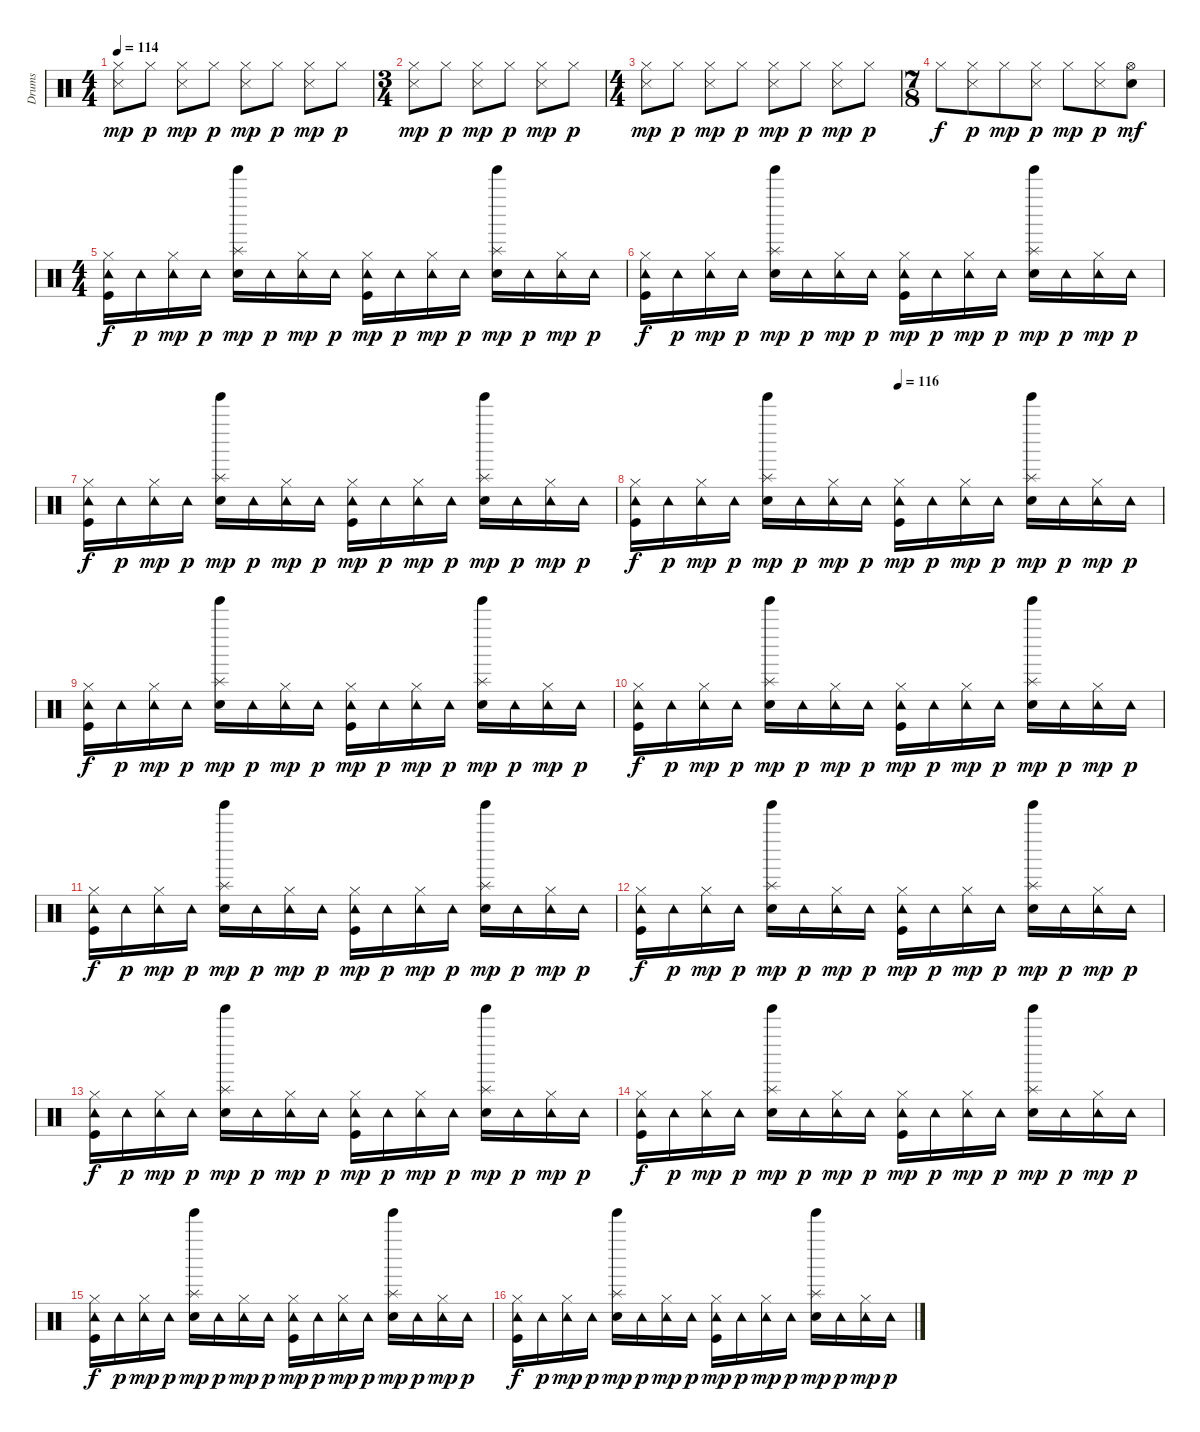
\track ("Drums" "Drums") {instrument percussion}
\staff {score}
\articulation defaults
\ts (4 4)
\tempo 114
\clef neutral
\ks c
("Snare (side stick) 3" "Hi-Hat (closed)").8{dy mp} "Hi-Hat (closed)".8{dy p} ("Snare (side stick) 3" "Hi-Hat (closed)").8{dy mp} "Hi-Hat (closed)".8{dy p} ("Snare (side stick) 3" "Hi-Hat (closed)").8{dy mp} "Hi-Hat (closed)".8{dy p} ("Snare (side stick) 3" "Hi-Hat (closed)").8{dy mp} "Hi-Hat (closed)".8{dy p} |
\ts (3 4)
("Snare (side stick) 3" "Hi-Hat (closed)").8{dy mp} "Hi-Hat (closed)".8{dy p} ("Snare (side stick) 3" "Hi-Hat (closed)").8{dy mp} "Hi-Hat (closed)".8{dy p} ("Snare (side stick) 3" "Hi-Hat (closed)").8{dy mp} "Hi-Hat (closed)".8{dy p} |
\ts (4 4)
("Snare (side stick) 3" "Hi-Hat (closed)").8{dy mp} "Hi-Hat (closed)".8{dy p} ("Snare (side stick) 3" "Hi-Hat (closed)").8{dy mp} "Hi-Hat (closed)".8{dy p} ("Snare (side stick) 3" "Hi-Hat (closed)").8{dy mp} "Hi-Hat (closed)".8{dy p} ("Snare (side stick) 3" "Hi-Hat (closed)").8{dy mp} "Hi-Hat (closed)".8{dy p} |
\ts (7 8)
"Hi-Hat (closed)".8{dy f} ("Snare (side stick) 3" "Hi-Hat (closed)").8{dy p} "Hi-Hat (closed)".8{dy mp} ("Snare (side stick) 3" "Hi-Hat (closed)").8{dy p} "Hi-Hat (closed)".8{dy mp} ("Snare (side stick) 3" "Hi-Hat (closed)").8{dy p} ("Electric Snare (hit)" "Hi-Hat (open)").8{dy mf} |
\ts (4 4)
("Kick (hit)" "Hi-Hat (closed)" "Tambourine (hit)").16{dy f} "Tambourine (hit)".16{dy p} ("Hi-Hat (closed)" "Tambourine (hit)").16{dy mp} "Tambourine (hit)".16{dy p} ("Electric Snare (hit)" "Splash (hit)" "Tinkle Bell (hit)").16{dy mp} "Tambourine (hit)".16{dy p} ("Hi-Hat (closed)" "Tambourine (hit)").16{dy mp} "Tambourine (hit)".16{dy p} ("Kick (hit)" "Hi-Hat (closed)" "Tambourine (hit)").16{dy mp} "Tambourine (hit)".16{dy p} ("Hi-Hat (closed)" "Tambourine (hit)").16{dy mp} "Tambourine (hit)".16{dy p} ("Electric Snare (hit)" "Splash (hit)" "Tinkle Bell (hit)").16{dy mp} "Tambourine (hit)".16{dy p} ("Hi-Hat (closed)" "Tambourine (hit)").16{dy mp} "Tambourine (hit)".16{dy p} |
("Kick (hit)" "Hi-Hat (closed)" "Tambourine (hit)").16{dy f} "Tambourine (hit)".16{dy p} ("Hi-Hat (closed)" "Tambourine (hit)").16{dy mp} "Tambourine (hit)".16{dy p} ("Electric Snare (hit)" "Splash (hit)" "Tinkle Bell (hit)").16{dy mp} "Tambourine (hit)".16{dy p} ("Hi-Hat (closed)" "Tambourine (hit)").16{dy mp} "Tambourine (hit)".16{dy p} ("Kick (hit)" "Hi-Hat (closed)" "Tambourine (hit)").16{dy mp} "Tambourine (hit)".16{dy p} ("Hi-Hat (closed)" "Tambourine (hit)").16{dy mp} "Tambourine (hit)".16{dy p} ("Electric Snare (hit)" "Splash (hit)" "Tinkle Bell (hit)").16{dy mp} "Tambourine (hit)".16{dy p} ("Hi-Hat (closed)" "Tambourine (hit)").16{dy mp} "Tambourine (hit)".16{dy p} |
("Kick (hit)" "Hi-Hat (closed)" "Tambourine (hit)").16{dy f} "Tambourine (hit)".16{dy p} ("Hi-Hat (closed)" "Tambourine (hit)").16{dy mp} "Tambourine (hit)".16{dy p} ("Electric Snare (hit)" "Splash (hit)" "Tinkle Bell (hit)").16{dy mp} "Tambourine (hit)".16{dy p} ("Hi-Hat (closed)" "Tambourine (hit)").16{dy mp} "Tambourine (hit)".16{dy p} ("Kick (hit)" "Hi-Hat (closed)" "Tambourine (hit)").16{dy mp} "Tambourine (hit)".16{dy p} ("Hi-Hat (closed)" "Tambourine (hit)").16{dy mp} "Tambourine (hit)".16{dy p} ("Electric Snare (hit)" "Splash (hit)" "Tinkle Bell (hit)").16{dy mp} "Tambourine (hit)".16{dy p} ("Hi-Hat (closed)" "Tambourine (hit)").16{dy mp} "Tambourine (hit)".16{dy p} |
\tempo (116 0.5)
("Kick (hit)" "Hi-Hat (closed)" "Tambourine (hit)").16{dy f} "Tambourine (hit)".16{dy p} ("Hi-Hat (closed)" "Tambourine (hit)").16{dy mp} "Tambourine (hit)".16{dy p} ("Electric Snare (hit)" "Splash (hit)" "Tinkle Bell (hit)").16{dy mp} "Tambourine (hit)".16{dy p} ("Hi-Hat (closed)" "Tambourine (hit)").16{dy mp} "Tambourine (hit)".16{dy p} ("Kick (hit)" "Hi-Hat (closed)" "Tambourine (hit)").16{dy mp} "Tambourine (hit)".16{dy p} ("Hi-Hat (closed)" "Tambourine (hit)").16{dy mp} "Tambourine (hit)".16{dy p} ("Electric Snare (hit)" "Splash (hit)" "Tinkle Bell (hit)").16{dy mp} "Tambourine (hit)".16{dy p} ("Hi-Hat (closed)" "Tambourine (hit)").16{dy mp} "Tambourine (hit)".16{dy p} |
("Kick (hit)" "Hi-Hat (closed)" "Tambourine (hit)").16{dy f} "Tambourine (hit)".16{dy p} ("Hi-Hat (closed)" "Tambourine (hit)").16{dy mp} "Tambourine (hit)".16{dy p} ("Electric Snare (hit)" "Splash (hit)" "Tinkle Bell (hit)").16{dy mp} "Tambourine (hit)".16{dy p} ("Hi-Hat (closed)" "Tambourine (hit)").16{dy mp} "Tambourine (hit)".16{dy p} ("Kick (hit)" "Hi-Hat (closed)" "Tambourine (hit)").16{dy mp} "Tambourine (hit)".16{dy p} ("Hi-Hat (closed)" "Tambourine (hit)").16{dy mp} "Tambourine (hit)".16{dy p} ("Electric Snare (hit)" "Splash (hit)" "Tinkle Bell (hit)").16{dy mp} "Tambourine (hit)".16{dy p} ("Hi-Hat (closed)" "Tambourine (hit)").16{dy mp} "Tambourine (hit)".16{dy p} |
("Kick (hit)" "Hi-Hat (closed)" "Tambourine (hit)").16{dy f} "Tambourine (hit)".16{dy p} ("Hi-Hat (closed)" "Tambourine (hit)").16{dy mp} "Tambourine (hit)".16{dy p} ("Electric Snare (hit)" "Splash (hit)" "Tinkle Bell (hit)").16{dy mp} "Tambourine (hit)".16{dy p} ("Hi-Hat (closed)" "Tambourine (hit)").16{dy mp} "Tambourine (hit)".16{dy p} ("Kick (hit)" "Hi-Hat (closed)" "Tambourine (hit)").16{dy mp} "Tambourine (hit)".16{dy p} ("Hi-Hat (closed)" "Tambourine (hit)").16{dy mp} "Tambourine (hit)".16{dy p} ("Electric Snare (hit)" "Splash (hit)" "Tinkle Bell (hit)").16{dy mp} "Tambourine (hit)".16{dy p} ("Hi-Hat (closed)" "Tambourine (hit)").16{dy mp} "Tambourine (hit)".16{dy p} |
("Kick (hit)" "Hi-Hat (closed)" "Tambourine (hit)").16{dy f} "Tambourine (hit)".16{dy p} ("Hi-Hat (closed)" "Tambourine (hit)").16{dy mp} "Tambourine (hit)".16{dy p} ("Electric Snare (hit)" "Splash (hit)" "Tinkle Bell (hit)").16{dy mp} "Tambourine (hit)".16{dy p} ("Hi-Hat (closed)" "Tambourine (hit)").16{dy mp} "Tambourine (hit)".16{dy p} ("Kick (hit)" "Hi-Hat (closed)" "Tambourine (hit)").16{dy mp} "Tambourine (hit)".16{dy p} ("Hi-Hat (closed)" "Tambourine (hit)").16{dy mp} "Tambourine (hit)".16{dy p} ("Electric Snare (hit)" "Splash (hit)" "Tinkle Bell (hit)").16{dy mp} "Tambourine (hit)".16{dy p} ("Hi-Hat (closed)" "Tambourine (hit)").16{dy mp} "Tambourine (hit)".16{dy p} |
("Kick (hit)" "Hi-Hat (closed)" "Tambourine (hit)").16{dy f} "Tambourine (hit)".16{dy p} ("Hi-Hat (closed)" "Tambourine (hit)").16{dy mp} "Tambourine (hit)".16{dy p} ("Electric Snare (hit)" "Splash (hit)" "Tinkle Bell (hit)").16{dy mp} "Tambourine (hit)".16{dy p} ("Hi-Hat (closed)" "Tambourine (hit)").16{dy mp} "Tambourine (hit)".16{dy p} ("Kick (hit)" "Hi-Hat (closed)" "Tambourine (hit)").16{dy mp} "Tambourine (hit)".16{dy p} ("Hi-Hat (closed)" "Tambourine (hit)").16{dy mp} "Tambourine (hit)".16{dy p} ("Electric Snare (hit)" "Splash (hit)" "Tinkle Bell (hit)").16{dy mp} "Tambourine (hit)".16{dy p} ("Hi-Hat (closed)" "Tambourine (hit)").16{dy mp} "Tambourine (hit)".16{dy p} |
("Kick (hit)" "Hi-Hat (closed)" "Tambourine (hit)").16{dy f} "Tambourine (hit)".16{dy p} ("Hi-Hat (closed)" "Tambourine (hit)").16{dy mp} "Tambourine (hit)".16{dy p} ("Electric Snare (hit)" "Splash (hit)" "Tinkle Bell (hit)").16{dy mp} "Tambourine (hit)".16{dy p} ("Hi-Hat (closed)" "Tambourine (hit)").16{dy mp} "Tambourine (hit)".16{dy p} ("Kick (hit)" "Hi-Hat (closed)" "Tambourine (hit)").16{dy mp} "Tambourine (hit)".16{dy p} ("Hi-Hat (closed)" "Tambourine (hit)").16{dy mp} "Tambourine (hit)".16{dy p} ("Electric Snare (hit)" "Splash (hit)" "Tinkle Bell (hit)").16{dy mp} "Tambourine (hit)".16{dy p} ("Hi-Hat (closed)" "Tambourine (hit)").16{dy mp} "Tambourine (hit)".16{dy p} |
("Kick (hit)" "Hi-Hat (closed)" "Tambourine (hit)").16{dy f} "Tambourine (hit)".16{dy p} ("Hi-Hat (closed)" "Tambourine (hit)").16{dy mp} "Tambourine (hit)".16{dy p} ("Electric Snare (hit)" "Splash (hit)" "Tinkle Bell (hit)").16{dy mp} "Tambourine (hit)".16{dy p} ("Hi-Hat (closed)" "Tambourine (hit)").16{dy mp} "Tambourine (hit)".16{dy p} ("Kick (hit)" "Hi-Hat (closed)" "Tambourine (hit)").16{dy mp} "Tambourine (hit)".16{dy p} ("Hi-Hat (closed)" "Tambourine (hit)").16{dy mp} "Tambourine (hit)".16{dy p} ("Electric Snare (hit)" "Splash (hit)" "Tinkle Bell (hit)").16{dy mp} "Tambourine (hit)".16{dy p} ("Hi-Hat (closed)" "Tambourine (hit)").16{dy mp} "Tambourine (hit)".16{dy p} |
("Kick (hit)" "Hi-Hat (closed)" "Tambourine (hit)").16{dy f} "Tambourine (hit)".16{dy p} ("Hi-Hat (closed)" "Tambourine (hit)").16{dy mp} "Tambourine (hit)".16{dy p} ("Electric Snare (hit)" "Splash (hit)" "Tinkle Bell (hit)").16{dy mp} "Tambourine (hit)".16{dy p} ("Hi-Hat (closed)" "Tambourine (hit)").16{dy mp} "Tambourine (hit)".16{dy p} ("Kick (hit)" "Hi-Hat (closed)" "Tambourine (hit)").16{dy mp} "Tambourine (hit)".16{dy p} ("Hi-Hat (closed)" "Tambourine (hit)").16{dy mp} "Tambourine (hit)".16{dy p} ("Electric Snare (hit)" "Splash (hit)" "Tinkle Bell (hit)").16{dy mp} "Tambourine (hit)".16{dy p} ("Hi-Hat (closed)" "Tambourine (hit)").16{dy mp} "Tambourine (hit)".16{dy p} |
("Kick (hit)" "Hi-Hat (closed)" "Tambourine (hit)").16{dy f} "Tambourine (hit)".16{dy p} ("Hi-Hat (closed)" "Tambourine (hit)").16{dy mp} "Tambourine (hit)".16{dy p} ("Electric Snare (hit)" "Splash (hit)" "Tinkle Bell (hit)").16{dy mp} "Tambourine (hit)".16{dy p} ("Hi-Hat (closed)" "Tambourine (hit)").16{dy mp} "Tambourine (hit)".16{dy p} ("Kick (hit)" "Hi-Hat (closed)" "Tambourine (hit)").16{dy mp} "Tambourine (hit)".16{dy p} ("Hi-Hat (closed)" "Tambourine (hit)").16{dy mp} "Tambourine (hit)".16{dy p} ("Electric Snare (hit)" "Splash (hit)" "Tinkle Bell (hit)").16{dy mp} "Tambourine (hit)".16{dy p} ("Hi-Hat (closed)" "Tambourine (hit)").16{dy mp} "Tambourine (hit)".16{dy p}
